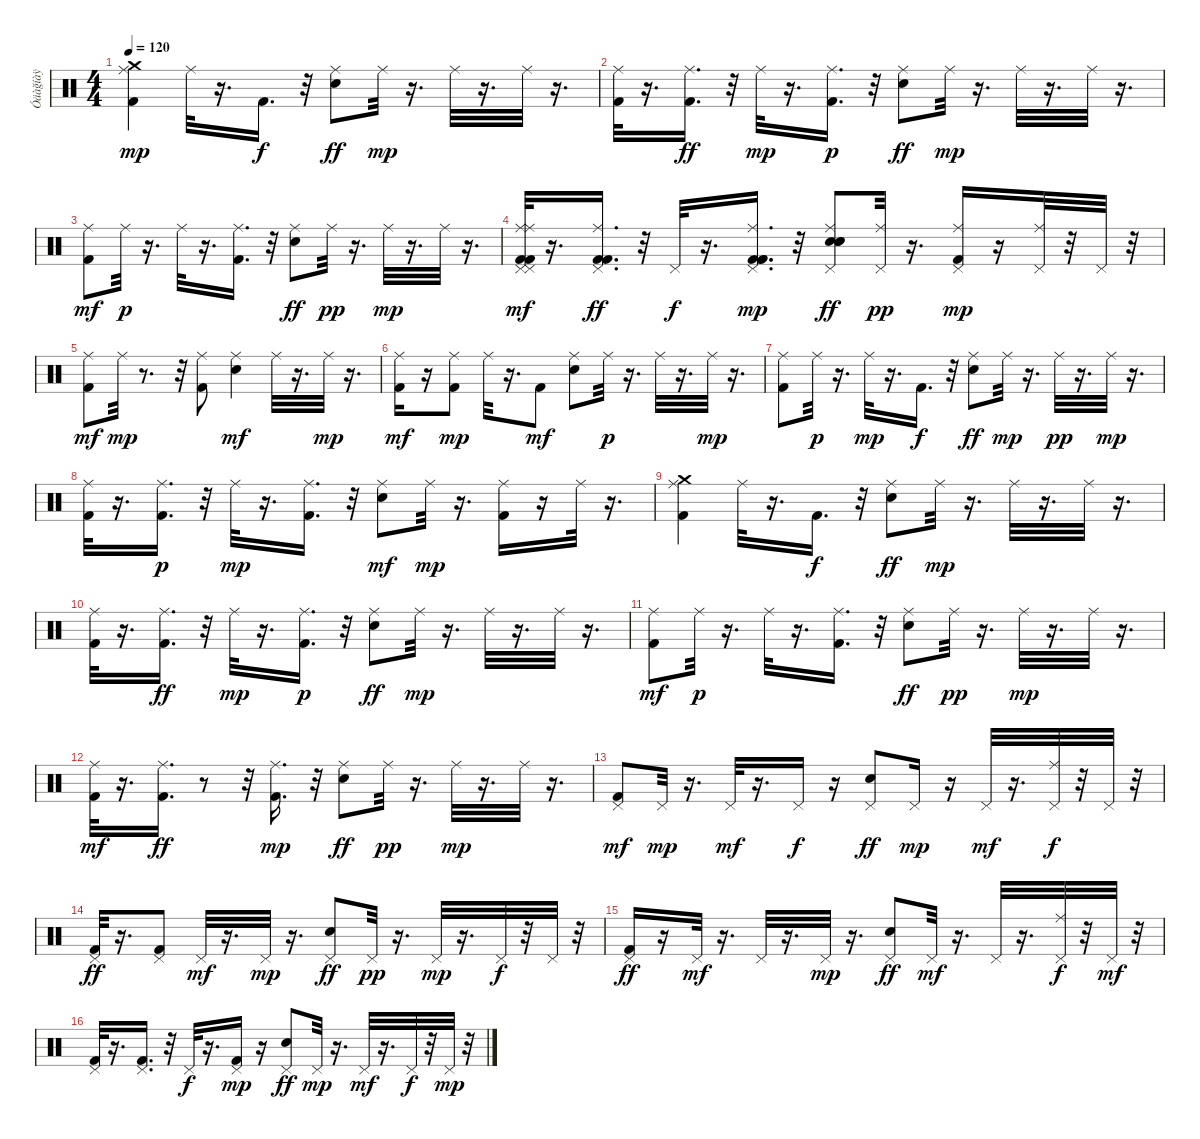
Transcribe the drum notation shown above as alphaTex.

\track ("Óäàğíàÿ" "Óäàğíàÿ") {instrument percussion}
\staff {score}
\articulation defaults
\ts (4 4)
\tempo 120
\clef neutral
\ks c
("Kick (hit) 2" "Crash medium (hit)" "Ride (middle)").4{dy mp} "Ride (middle)".32 r.16{d} "Kick (hit) 2".16{d dy f} r.32 ("Ride (middle)" "Snare (hit) 2").8{dy ff} "Ride (middle)".32{dy mp} r.16{d} "Ride (middle)".32 r.16{d} "Ride (middle)".32 r.16{d} |
("Kick (hit) 2" "Ride (middle)").32 r.16{d} ("Ride (middle)" "Kick (hit) 2").16{d dy ff} r.32 "Ride (middle)".32{dy mp} r.16{d} ("Ride (middle)" "Kick (hit) 2").16{d dy p} r.32 ("Ride (middle)" "Snare (hit) 2").8{dy ff} "Ride (middle)".32{dy mp} r.16{d} "Ride (middle)".32 r.16{d} "Ride (middle)".32 r.16{d} |
("Ride (middle)" "Kick (hit) 2").8{dy mf} "Ride (middle)".32{dy p} r.16{d} "Ride (middle)".32 r.16{d} ("Ride (middle)" "Kick (hit) 2").16{d} r.32 ("Ride (middle)" "Snare (hit) 2").8{dy ff} "Ride (middle)".32{dy pp} r.16{d} "Ride (middle)".32{dy mp} r.16{d} "Ride (middle)".32 r.16{d} |
("Ride (middle)" "Pedal Hi-Hat (hit)" "Kick (hit) 2" "Kick (hit) 2" "Pedal Hi-Hat (hit)" "Ride (middle)").32{dy mf} r.16{d} ("Kick (hit) 2" "Pedal Hi-Hat (hit)" "Ride (middle)" "Kick (hit) 2").16{d dy ff} r.32 "Pedal Hi-Hat (hit)".32{dy f} r.16{d} ("Kick (hit) 2" "Kick (hit) 2" "Pedal Hi-Hat (hit)" "Ride (middle)" "Kick (hit) 2").16{d dy mp} r.32 ("Snare (hit) 2" "Pedal Hi-Hat (hit)" "Snare (hit) 2" "Ride (middle)" "Snare (hit) 2").8{dy ff} ("Pedal Hi-Hat (hit)" "Ride (middle)").32{dy pp} r.16{d} ("Kick (hit) 2" "Pedal Hi-Hat (hit)" "Ride (middle)").16{dy mp} r.16 ("Pedal Hi-Hat (hit)" "Ride (middle)").32 r.32 "Pedal Hi-Hat (hit)".32 r.32 |
("Ride (middle)" "Kick (hit) 2").8{dy mf} "Ride (middle)".32{dy mp} r.8{d} r.32 ("Kick (hit) 2" "Ride (middle)").8 ("Snare (hit) 2" "Ride (middle)").4{dy mf} "Ride (middle)".32 r.16{d} "Ride (middle)".32{dy mp} r.16{d} |
("Ride (middle)" "Kick (hit) 2").16{dy mf} r.16 ("Kick (hit) 2" "Ride (middle)").8{dy mp} "Ride (middle)".32 r.16{d} "Kick (hit) 2".8{dy mf} ("Ride (middle)" "Snare (hit) 2").8 "Ride (middle)".32{dy p} r.16{d} "Ride (middle)".32 r.16{d} "Ride (middle)".32{dy mp} r.16{d} |
("Kick (hit) 2" "Ride (middle)").8 "Ride (middle)".32{dy p} r.16{d} "Ride (middle)".32{dy mp} r.16{d} "Kick (hit) 2".16{d dy f} r.32 ("Ride (middle)" "Snare (hit) 2").8{dy ff} "Ride (middle)".32{dy mp} r.16{d} "Ride (middle)".32{dy pp} r.16{d} "Ride (middle)".32{dy mp} r.16{d} |
("Kick (hit) 2" "Ride (middle)").32 r.16{d} ("Kick (hit) 2" "Ride (middle)").16{d dy p} r.32 "Ride (middle)".32{dy mp} r.16{d} ("Kick (hit) 2" "Ride (middle)").16{d} r.32 ("Snare (hit) 2" "Ride (middle)").8{dy mf} "Ride (middle)".32{dy mp} r.16{d} ("Kick (hit) 2" "Ride (middle)").16 r.16 "Ride (middle)".32 r.16{d} |
("Kick (hit) 2" "Crash medium (hit)" "Ride (middle)").4 "Ride (middle)".32 r.16{d} "Kick (hit) 2".16{d dy f} r.32 ("Ride (middle)" "Snare (hit) 2").8{dy ff} "Ride (middle)".32{dy mp} r.16{d} "Ride (middle)".32 r.16{d} "Ride (middle)".32 r.16{d} |
("Kick (hit) 2" "Ride (middle)").32 r.16{d} ("Ride (middle)" "Kick (hit) 2").16{d dy ff} r.32 "Ride (middle)".32{dy mp} r.16{d} ("Ride (middle)" "Kick (hit) 2").16{d dy p} r.32 ("Ride (middle)" "Snare (hit) 2").8{dy ff} "Ride (middle)".32{dy mp} r.16{d} "Ride (middle)".32 r.16{d} "Ride (middle)".32 r.16{d} |
("Ride (middle)" "Kick (hit) 2").8{dy mf} "Ride (middle)".32{dy p} r.16{d} "Ride (middle)".32 r.16{d} ("Ride (middle)" "Kick (hit) 2").16{d} r.32 ("Ride (middle)" "Snare (hit) 2").8{dy ff} "Ride (middle)".32{dy pp} r.16{d} "Ride (middle)".32{dy mp} r.16{d} "Ride (middle)".32 r.16{d} |
("Ride (middle)" "Kick (hit) 2").32{dy mf} r.16{d} ("Ride (middle)" "Kick (hit) 2").16{d dy ff} r.8 r.32 ("Ride (middle)" "Kick (hit) 2").16{d dy mp} r.32 ("Ride (middle)" "Snare (hit) 2").8{dy ff} "Ride (middle)".32{dy pp} r.16{d} "Ride (middle)".32{dy mp} r.16{d} "Ride (middle)".32 r.16{d} |
("Kick (hit) 2" "Pedal Hi-Hat (hit)").8{dy mf} "Pedal Hi-Hat (hit)".32{dy mp} r.16{d} "Pedal Hi-Hat (hit)".32{dy mf} r.16{d} "Pedal Hi-Hat (hit)".16{dy f} r.16 ("Pedal Hi-Hat (hit)" "Snare (hit) 2").8{dy ff} "Pedal Hi-Hat (hit)".16{dy mp} r.16 "Pedal Hi-Hat (hit)".32{dy mf} r.16{d} ("Ride (middle)" "Pedal Hi-Hat (hit)").32{dy f} r.32 "Pedal Hi-Hat (hit)".32 r.32 |
("Kick (hit) 2" "Pedal Hi-Hat (hit)").32{dy ff} r.16{d} ("Kick (hit) 2" "Pedal Hi-Hat (hit)").8 "Pedal Hi-Hat (hit)".32{dy mf} r.16{d} "Pedal Hi-Hat (hit)".32{dy mp} r.16{d} ("Pedal Hi-Hat (hit)" "Snare (hit) 2").8{dy ff} "Pedal Hi-Hat (hit)".32{dy pp} r.16{d} "Pedal Hi-Hat (hit)".32{dy mp} r.16{d} "Pedal Hi-Hat (hit)".32{dy f} r.32 "Pedal Hi-Hat (hit)".32 r.32 |
("Kick (hit) 2" "Pedal Hi-Hat (hit)").16{dy ff} r.16 "Pedal Hi-Hat (hit)".32{dy mf} r.16{d} "Pedal Hi-Hat (hit)".32 r.16{d} "Pedal Hi-Hat (hit)".32{dy mp} r.16{d} ("Pedal Hi-Hat (hit)" "Snare (hit) 2").8{dy ff} "Pedal Hi-Hat (hit)".32{dy mf} r.16{d} "Pedal Hi-Hat (hit)".32 r.16{d} ("Ride (middle)" "Pedal Hi-Hat (hit)").32{dy f} r.32 "Pedal Hi-Hat (hit)".32{dy mf} r.32 |
("Kick (hit) 2" "Pedal Hi-Hat (hit)").32 r.16{d} ("Kick (hit) 2" "Pedal Hi-Hat (hit)").16{d} r.32 "Pedal Hi-Hat (hit)".32{dy f} r.16{d} ("Kick (hit) 2" "Pedal Hi-Hat (hit)").16{dy mp} r.16 ("Pedal Hi-Hat (hit)" "Snare (hit) 2").8{dy ff} "Pedal Hi-Hat (hit)".32{dy mp} r.16{d} "Pedal Hi-Hat (hit)".32{dy mf} r.16{d} "Pedal Hi-Hat (hit)".32{dy f} r.32 "Pedal Hi-Hat (hit)".32{dy mp} r.32
